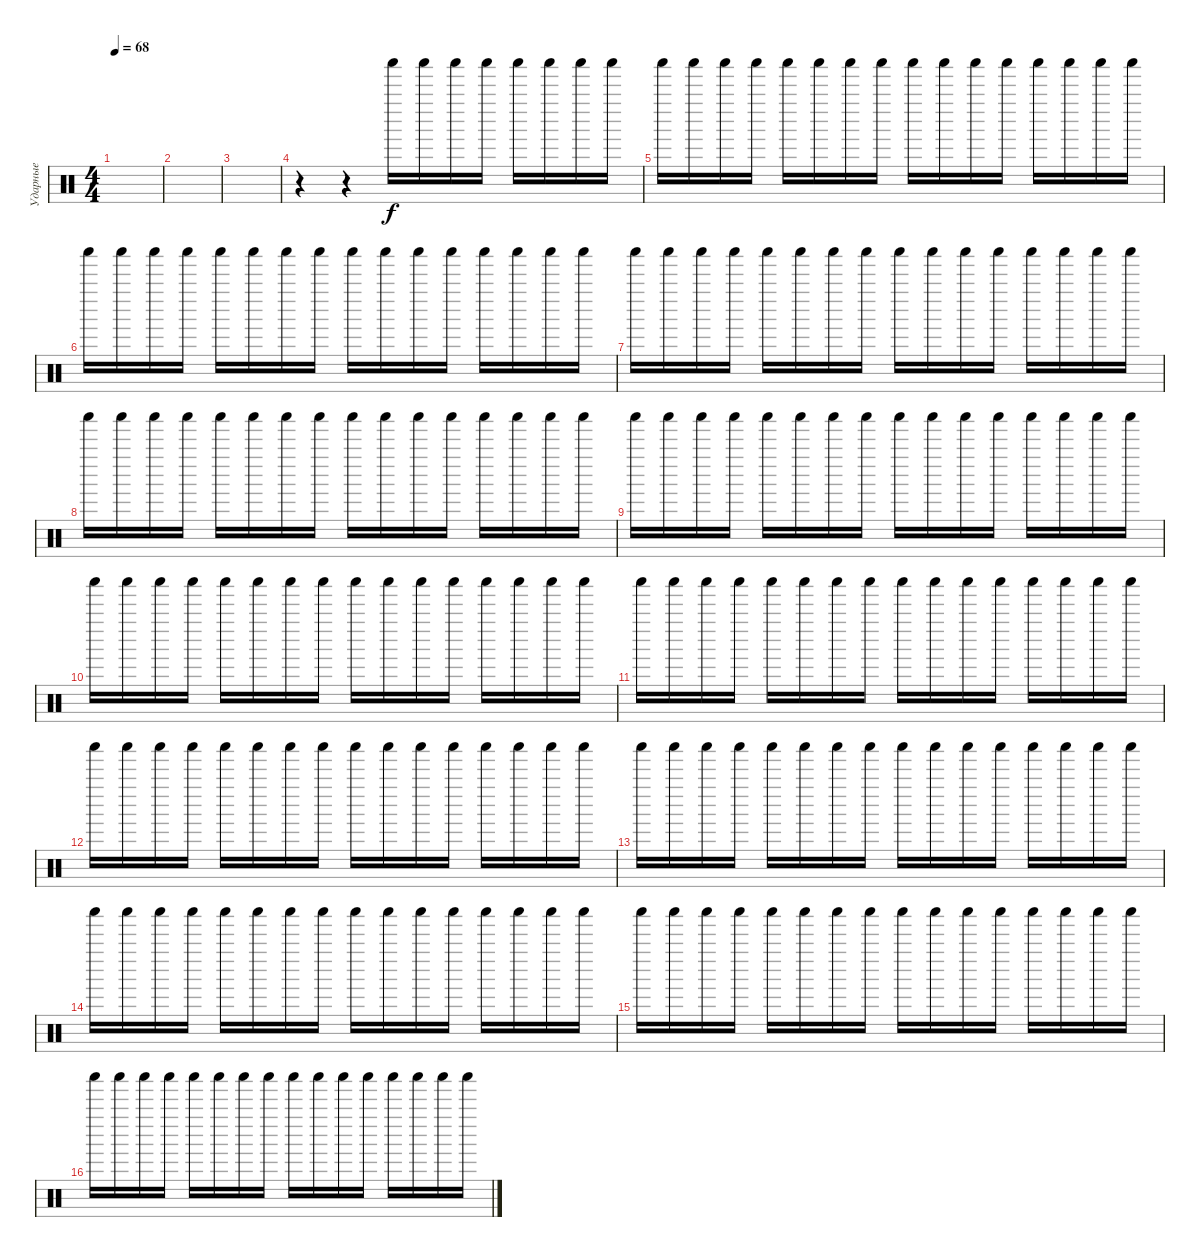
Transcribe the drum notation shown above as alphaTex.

\track ("Ударные" "Ударные") {instrument percussion}
\staff {score}
\articulation defaults
\ts (4 4)
\tempo 68
\clef neutral
\ks c
|
|
|
r.4 r.4 "Shaker (hit)".16 "Shaker (hit)".16 "Shaker (hit)".16 "Shaker (hit)".16 "Shaker (hit)".16 "Shaker (hit)".16 "Shaker (hit)".16 "Shaker (hit)".16 |
"Shaker (hit)".16 "Shaker (hit)".16 "Shaker (hit)".16 "Shaker (hit)".16 "Shaker (hit)".16 "Shaker (hit)".16 "Shaker (hit)".16 "Shaker (hit)".16 "Shaker (hit)".16 "Shaker (hit)".16 "Shaker (hit)".16 "Shaker (hit)".16 "Shaker (hit)".16 "Shaker (hit)".16 "Shaker (hit)".16 "Shaker (hit)".16 |
"Shaker (hit)".16 "Shaker (hit)".16 "Shaker (hit)".16 "Shaker (hit)".16 "Shaker (hit)".16 "Shaker (hit)".16 "Shaker (hit)".16 "Shaker (hit)".16 "Shaker (hit)".16 "Shaker (hit)".16 "Shaker (hit)".16 "Shaker (hit)".16 "Shaker (hit)".16 "Shaker (hit)".16 "Shaker (hit)".16 "Shaker (hit)".16 |
"Shaker (hit)".16 "Shaker (hit)".16 "Shaker (hit)".16 "Shaker (hit)".16 "Shaker (hit)".16 "Shaker (hit)".16 "Shaker (hit)".16 "Shaker (hit)".16 "Shaker (hit)".16 "Shaker (hit)".16 "Shaker (hit)".16 "Shaker (hit)".16 "Shaker (hit)".16 "Shaker (hit)".16 "Shaker (hit)".16 "Shaker (hit)".16 |
"Shaker (hit)".16 "Shaker (hit)".16 "Shaker (hit)".16 "Shaker (hit)".16 "Shaker (hit)".16 "Shaker (hit)".16 "Shaker (hit)".16 "Shaker (hit)".16 "Shaker (hit)".16 "Shaker (hit)".16 "Shaker (hit)".16 "Shaker (hit)".16 "Shaker (hit)".16 "Shaker (hit)".16 "Shaker (hit)".16 "Shaker (hit)".16 |
"Shaker (hit)".16 "Shaker (hit)".16 "Shaker (hit)".16 "Shaker (hit)".16 "Shaker (hit)".16 "Shaker (hit)".16 "Shaker (hit)".16 "Shaker (hit)".16 "Shaker (hit)".16 "Shaker (hit)".16 "Shaker (hit)".16 "Shaker (hit)".16 "Shaker (hit)".16 "Shaker (hit)".16 "Shaker (hit)".16 "Shaker (hit)".16 |
"Shaker (hit)".16 "Shaker (hit)".16 "Shaker (hit)".16 "Shaker (hit)".16 "Shaker (hit)".16 "Shaker (hit)".16 "Shaker (hit)".16 "Shaker (hit)".16 "Shaker (hit)".16 "Shaker (hit)".16 "Shaker (hit)".16 "Shaker (hit)".16 "Shaker (hit)".16 "Shaker (hit)".16 "Shaker (hit)".16 "Shaker (hit)".16 |
"Shaker (hit)".16 "Shaker (hit)".16 "Shaker (hit)".16 "Shaker (hit)".16 "Shaker (hit)".16 "Shaker (hit)".16 "Shaker (hit)".16 "Shaker (hit)".16 "Shaker (hit)".16 "Shaker (hit)".16 "Shaker (hit)".16 "Shaker (hit)".16 "Shaker (hit)".16 "Shaker (hit)".16 "Shaker (hit)".16 "Shaker (hit)".16 |
"Shaker (hit)".16 "Shaker (hit)".16 "Shaker (hit)".16 "Shaker (hit)".16 "Shaker (hit)".16 "Shaker (hit)".16 "Shaker (hit)".16 "Shaker (hit)".16 "Shaker (hit)".16 "Shaker (hit)".16 "Shaker (hit)".16 "Shaker (hit)".16 "Shaker (hit)".16 "Shaker (hit)".16 "Shaker (hit)".16 "Shaker (hit)".16 |
"Shaker (hit)".16 "Shaker (hit)".16 "Shaker (hit)".16 "Shaker (hit)".16 "Shaker (hit)".16 "Shaker (hit)".16 "Shaker (hit)".16 "Shaker (hit)".16 "Shaker (hit)".16 "Shaker (hit)".16 "Shaker (hit)".16 "Shaker (hit)".16 "Shaker (hit)".16 "Shaker (hit)".16 "Shaker (hit)".16 "Shaker (hit)".16 |
"Shaker (hit)".16 "Shaker (hit)".16 "Shaker (hit)".16 "Shaker (hit)".16 "Shaker (hit)".16 "Shaker (hit)".16 "Shaker (hit)".16 "Shaker (hit)".16 "Shaker (hit)".16 "Shaker (hit)".16 "Shaker (hit)".16 "Shaker (hit)".16 "Shaker (hit)".16 "Shaker (hit)".16 "Shaker (hit)".16 "Shaker (hit)".16 |
"Shaker (hit)".16 "Shaker (hit)".16 "Shaker (hit)".16 "Shaker (hit)".16 "Shaker (hit)".16 "Shaker (hit)".16 "Shaker (hit)".16 "Shaker (hit)".16 "Shaker (hit)".16 "Shaker (hit)".16 "Shaker (hit)".16 "Shaker (hit)".16 "Shaker (hit)".16 "Shaker (hit)".16 "Shaker (hit)".16 "Shaker (hit)".16 |
"Shaker (hit)".16 "Shaker (hit)".16 "Shaker (hit)".16 "Shaker (hit)".16 "Shaker (hit)".16 "Shaker (hit)".16 "Shaker (hit)".16 "Shaker (hit)".16 "Shaker (hit)".16 "Shaker (hit)".16 "Shaker (hit)".16 "Shaker (hit)".16 "Shaker (hit)".16 "Shaker (hit)".16 "Shaker (hit)".16 "Shaker (hit)".16
